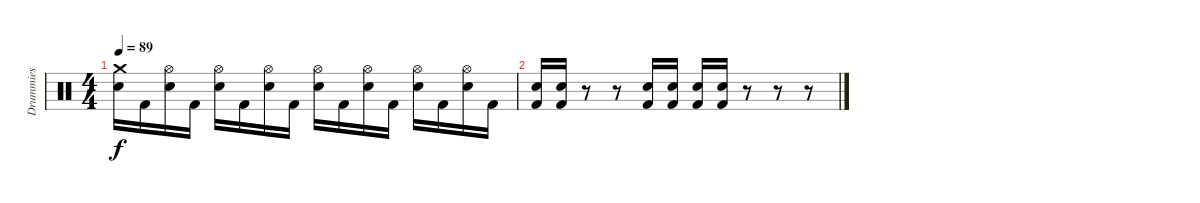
\track ("Drummies" "Drummies") {instrument percussion}
\staff {score}
\articulation defaults
\ts (4 4)
\tempo 89
\clef neutral
\ks c
("Crash medium (hit)" "Electric Snare (hit)").16{dy f} "Kick (hit) 2".16 ("Hi-Hat (open)" "Electric Snare (hit)").16 "Kick (hit) 2".16 ("Hi-Hat (open)" "Electric Snare (hit)").16 "Kick (hit) 2".16 ("Hi-Hat (open)" "Electric Snare (hit)").16 "Kick (hit) 2".16 ("Hi-Hat (open)" "Electric Snare (hit)").16 "Kick (hit) 2".16 ("Hi-Hat (open)" "Electric Snare (hit)").16 "Kick (hit) 2".16 ("Hi-Hat (open)" "Electric Snare (hit)").16 "Kick (hit) 2".16 ("Hi-Hat (open)" "Electric Snare (hit)").16 "Kick (hit) 2".16 |
("Kick (hit) 2" "Electric Snare (hit)").16 ("Kick (hit) 2" "Electric Snare (hit)").16 r.8 r.8 ("Kick (hit) 2" "Electric Snare (hit)").16 ("Kick (hit) 2" "Electric Snare (hit)").16 ("Kick (hit) 2" "Electric Snare (hit)").16 ("Kick (hit) 2" "Electric Snare (hit)").16 r.8 r.8 r.8
